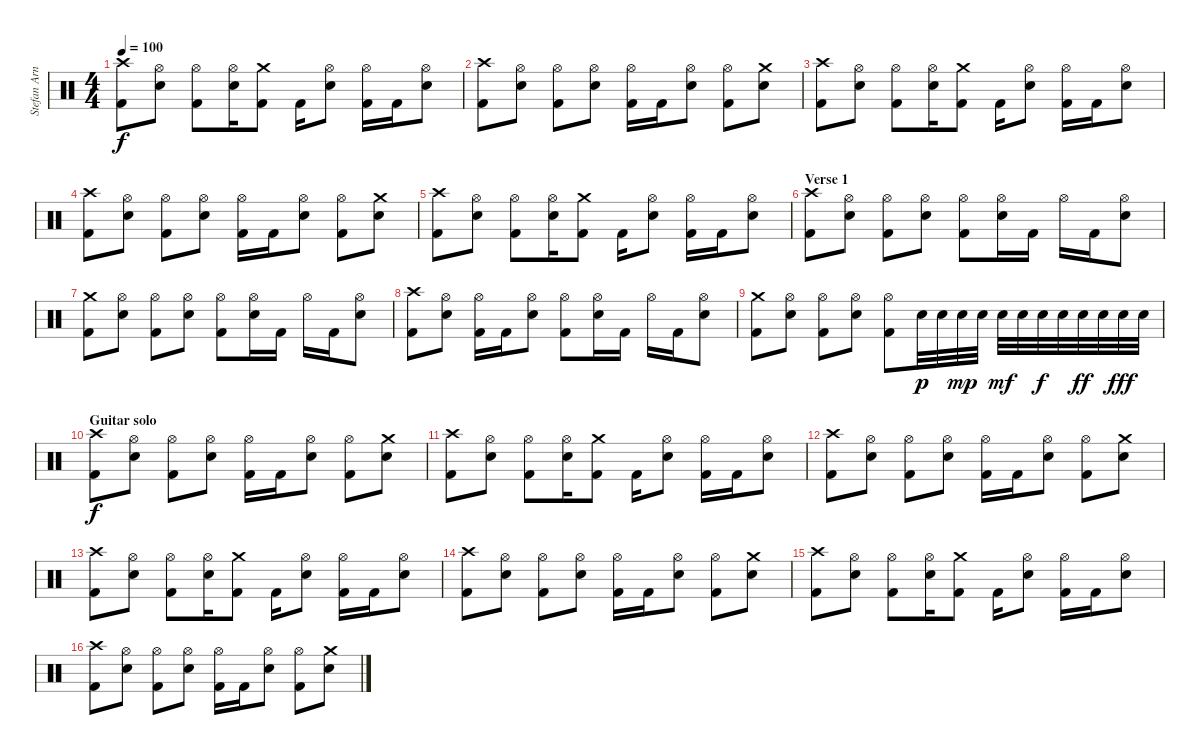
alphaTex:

\track ("Stefan Arnold" "Stefan Arn") {instrument percussion}
\staff {score}
\articulation defaults
\ts (4 4)
\tempo 100
\clef neutral
\ks c
("Crash high (hit)" "Kick (hit) 2").8{dy f} ("Hi-Hat (open)" "Electric Snare (hit)").8 ("Hi-Hat (open)" "Kick (hit) 2").8 ("Hi-Hat (open)" "Electric Snare (hit)").16 ("Crash medium (hit)" "Kick (hit) 2").8 "Kick (hit) 2".16 ("Hi-Hat (open)" "Electric Snare (hit)").8 ("Hi-Hat (open)" "Kick (hit) 2").16 "Kick (hit) 2".16 ("Hi-Hat (open)" "Electric Snare (hit)").8 |
("Crash high (hit)" "Kick (hit) 2").8 ("Hi-Hat (open)" "Electric Snare (hit)").8 ("Hi-Hat (open)" "Kick (hit) 2").8 ("Hi-Hat (open)" "Electric Snare (hit)").8 ("Hi-Hat (open)" "Kick (hit) 2").16 "Kick (hit) 2".16 ("Hi-Hat (open)" "Electric Snare (hit)").8 ("Hi-Hat (open)" "Kick (hit) 2").8 ("Crash medium (hit)" "Electric Snare (hit)").8 |
("Crash high (hit)" "Kick (hit) 2").8 ("Hi-Hat (open)" "Electric Snare (hit)").8 ("Hi-Hat (open)" "Kick (hit) 2").8 ("Hi-Hat (open)" "Electric Snare (hit)").16 ("Crash medium (hit)" "Kick (hit) 2").8 "Kick (hit) 2".16 ("Hi-Hat (open)" "Electric Snare (hit)").8 ("Hi-Hat (open)" "Kick (hit) 2").16 "Kick (hit) 2".16 ("Hi-Hat (open)" "Electric Snare (hit)").8 |
("Crash high (hit)" "Kick (hit) 2").8 ("Hi-Hat (open)" "Electric Snare (hit)").8 ("Hi-Hat (open)" "Kick (hit) 2").8 ("Hi-Hat (open)" "Electric Snare (hit)").8 ("Hi-Hat (open)" "Kick (hit) 2").16 "Kick (hit) 2".16 ("Hi-Hat (open)" "Electric Snare (hit)").8 ("Hi-Hat (open)" "Kick (hit) 2").8 ("Crash medium (hit)" "Electric Snare (hit)").8 |
("Crash high (hit)" "Kick (hit) 2").8 ("Hi-Hat (open)" "Electric Snare (hit)").8 ("Hi-Hat (open)" "Kick (hit) 2").8 ("Hi-Hat (open)" "Electric Snare (hit)").16 ("Crash medium (hit)" "Kick (hit) 2").8 "Kick (hit) 2".16 ("Hi-Hat (open)" "Electric Snare (hit)").8 ("Hi-Hat (open)" "Kick (hit) 2").16 "Kick (hit) 2".16 ("Hi-Hat (open)" "Electric Snare (hit)").8 |
\section ("" "Verse 1")
("Crash high (hit)" "Kick (hit) 2").8 ("Hi-Hat (open)" "Electric Snare (hit)").8 ("Hi-Hat (open)" "Kick (hit) 2").8 ("Hi-Hat (open)" "Electric Snare (hit)").8 ("Hi-Hat (open)" "Kick (hit) 2").8 ("Hi-Hat (open)" "Electric Snare (hit)").16 "Kick (hit) 2".16 "Hi-Hat (open)".16 "Kick (hit) 2".16 ("Hi-Hat (open)" "Electric Snare (hit)").8 |
("Crash medium (hit)" "Kick (hit) 2").8 ("Hi-Hat (open)" "Electric Snare (hit)").8 ("Hi-Hat (open)" "Kick (hit) 2").8 ("Hi-Hat (open)" "Electric Snare (hit)").8 ("Hi-Hat (open)" "Kick (hit) 2").8 ("Hi-Hat (open)" "Electric Snare (hit)").16 "Kick (hit) 2".16 "Hi-Hat (open)".16 "Kick (hit) 2".16 ("Hi-Hat (open)" "Electric Snare (hit)").8 |
("Crash high (hit)" "Kick (hit) 2").8 ("Hi-Hat (open)" "Electric Snare (hit)").8 ("Hi-Hat (open)" "Kick (hit) 2").16 "Kick (hit) 2".16 ("Hi-Hat (open)" "Electric Snare (hit)").8 ("Hi-Hat (open)" "Kick (hit) 2").8 ("Hi-Hat (open)" "Electric Snare (hit)").16 "Kick (hit) 2".16 "Hi-Hat (open)".16 "Kick (hit) 2".16 ("Hi-Hat (open)" "Electric Snare (hit)").8 |
("Crash medium (hit)" "Kick (hit) 2").8 ("Hi-Hat (open)" "Electric Snare (hit)").8 ("Hi-Hat (open)" "Kick (hit) 2").8 ("Hi-Hat (open)" "Electric Snare (hit)").8 ("Hi-Hat (open)" "Kick (hit) 2").8 "Electric Snare (hit)".32{dy p} "Electric Snare (hit)".32 "Electric Snare (hit)".32{dy mp} "Electric Snare (hit)".32 "Electric Snare (hit)".32{dy mf} "Electric Snare (hit)".32 "Electric Snare (hit)".32{dy f} "Electric Snare (hit)".32 "Electric Snare (hit)".32{dy ff} "Electric Snare (hit)".32 "Electric Snare (hit)".32{dy fff} "Electric Snare (hit)".32 |
\section ("" "Guitar solo")
("Crash high (hit)" "Kick (hit) 2").8{dy f} ("Hi-Hat (open)" "Electric Snare (hit)").8 ("Hi-Hat (open)" "Kick (hit) 2").8 ("Hi-Hat (open)" "Electric Snare (hit)").8 ("Hi-Hat (open)" "Kick (hit) 2").16 "Kick (hit) 2".16 ("Hi-Hat (open)" "Electric Snare (hit)").8 ("Hi-Hat (open)" "Kick (hit) 2").8 ("Crash medium (hit)" "Electric Snare (hit)").8 |
("Crash high (hit)" "Kick (hit) 2").8 ("Hi-Hat (open)" "Electric Snare (hit)").8 ("Hi-Hat (open)" "Kick (hit) 2").8 ("Hi-Hat (open)" "Electric Snare (hit)").16 ("Crash medium (hit)" "Kick (hit) 2").8 "Kick (hit) 2".16 ("Hi-Hat (open)" "Electric Snare (hit)").8 ("Hi-Hat (open)" "Kick (hit) 2").16 "Kick (hit) 2".16 ("Hi-Hat (open)" "Electric Snare (hit)").8 |
("Crash high (hit)" "Kick (hit) 2").8 ("Hi-Hat (open)" "Electric Snare (hit)").8 ("Hi-Hat (open)" "Kick (hit) 2").8 ("Hi-Hat (open)" "Electric Snare (hit)").8 ("Hi-Hat (open)" "Kick (hit) 2").16 "Kick (hit) 2".16 ("Hi-Hat (open)" "Electric Snare (hit)").8 ("Hi-Hat (open)" "Kick (hit) 2").8 ("Crash medium (hit)" "Electric Snare (hit)").8 |
("Crash high (hit)" "Kick (hit) 2").8 ("Hi-Hat (open)" "Electric Snare (hit)").8 ("Hi-Hat (open)" "Kick (hit) 2").8 ("Hi-Hat (open)" "Electric Snare (hit)").16 ("Crash medium (hit)" "Kick (hit) 2").8 "Kick (hit) 2".16 ("Hi-Hat (open)" "Electric Snare (hit)").8 ("Hi-Hat (open)" "Kick (hit) 2").16 "Kick (hit) 2".16 ("Hi-Hat (open)" "Electric Snare (hit)").8 |
("Crash high (hit)" "Kick (hit) 2").8 ("Hi-Hat (open)" "Electric Snare (hit)").8 ("Hi-Hat (open)" "Kick (hit) 2").8 ("Hi-Hat (open)" "Electric Snare (hit)").8 ("Hi-Hat (open)" "Kick (hit) 2").16 "Kick (hit) 2".16 ("Hi-Hat (open)" "Electric Snare (hit)").8 ("Hi-Hat (open)" "Kick (hit) 2").8 ("Crash medium (hit)" "Electric Snare (hit)").8 |
("Crash high (hit)" "Kick (hit) 2").8 ("Hi-Hat (open)" "Electric Snare (hit)").8 ("Hi-Hat (open)" "Kick (hit) 2").8 ("Hi-Hat (open)" "Electric Snare (hit)").16 ("Crash medium (hit)" "Kick (hit) 2").8 "Kick (hit) 2".16 ("Hi-Hat (open)" "Electric Snare (hit)").8 ("Hi-Hat (open)" "Kick (hit) 2").16 "Kick (hit) 2".16 ("Hi-Hat (open)" "Electric Snare (hit)").8 |
("Crash high (hit)" "Kick (hit) 2").8 ("Hi-Hat (open)" "Electric Snare (hit)").8 ("Hi-Hat (open)" "Kick (hit) 2").8 ("Hi-Hat (open)" "Electric Snare (hit)").8 ("Hi-Hat (open)" "Kick (hit) 2").16 "Kick (hit) 2".16 ("Hi-Hat (open)" "Electric Snare (hit)").8 ("Hi-Hat (open)" "Kick (hit) 2").8 ("Crash medium (hit)" "Electric Snare (hit)").8
